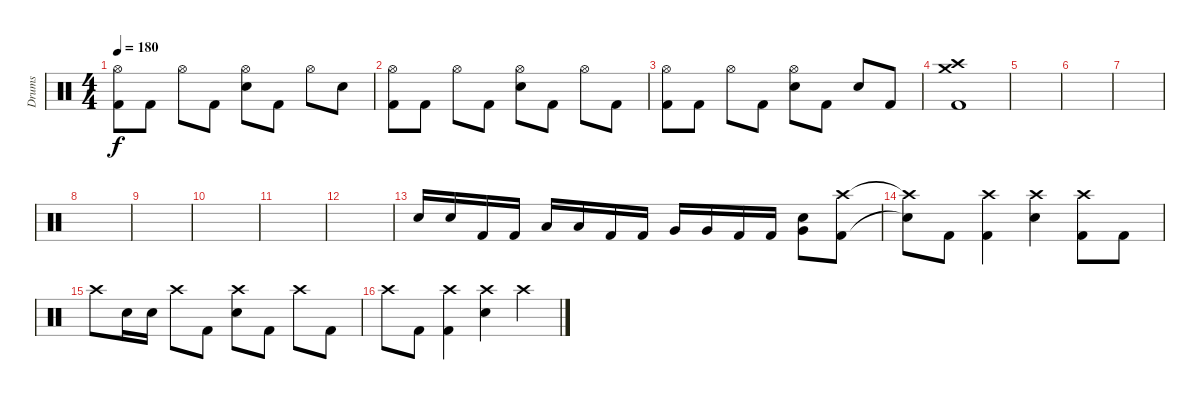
\track ("Drums" "Drums") {instrument percussion}
\staff {score}
\articulation defaults
\ts (4 4)
\tempo 180
\clef neutral
\ks c
("Hi-Hat (open)" "Kick (hit) 2").8{dy f} "Kick (hit) 2".8 "Hi-Hat (open)".8 "Kick (hit) 2".8 ("Hi-Hat (open)" "Electric Snare (hit)").8 "Kick (hit) 2".8 "Hi-Hat (open)".8 "Electric Snare (hit)".8 |
("Hi-Hat (open)" "Kick (hit) 2").8 "Kick (hit) 2".8 "Hi-Hat (open)".8 "Kick (hit) 2".8 ("Hi-Hat (open)" "Electric Snare (hit)").8 "Kick (hit) 2".8 "Hi-Hat (open)".8 "Kick (hit) 2".8 |
("Hi-Hat (open)" "Kick (hit) 2").8 "Kick (hit) 2".8 "Hi-Hat (open)".8 "Kick (hit) 2".8 ("Hi-Hat (open)" "Electric Snare (hit)").8 "Kick (hit) 2".8 "Electric Snare (hit)".8 "Kick (hit) 2".8 |
("Crash high (hit)" "Crash medium (hit)" "Kick (hit) 2").1 |
|
|
|
|
|
|
|
|
"Electric Snare (hit)".16 "Electric Snare (hit)".16 "Kick (hit) 2".16 "Kick (hit) 2".16 "Low Tom (hit)".16 "Low Tom (hit)".16 "Kick (hit) 2".16 "Kick (hit) 2".16 "Very Low Tom (hit)".16 "Very Low Tom (hit)".16 "Kick (hit) 2".16 "Kick (hit) 2".16 ("Very Low Tom (hit)" "Electric Snare (hit)").8 ("Crash high (hit)" "Kick (hit) 2").8 |
("Crash high (hit)"{t} "Snare (hit)"{t}).8 "Kick (hit) 2".8 ("Crash high (hit)" "Kick (hit) 2").4 ("Crash high (hit)" "Electric Snare (hit)").4 ("Crash high (hit)" "Kick (hit) 2").8 "Kick (hit) 2".8 |
"Crash high (hit)".8 "Electric Snare (hit)".16 "Electric Snare (hit)".16 "Crash high (hit)".8 "Kick (hit) 2".8 ("Crash high (hit)" "Electric Snare (hit)").8 "Kick (hit) 2".8 "Crash high (hit)".8 "Kick (hit) 2".8 |
"Crash high (hit)".8 "Kick (hit) 2".8 ("Crash high (hit)" "Kick (hit) 2").4 ("Crash high (hit)" "Electric Snare (hit)").4 "Crash high (hit)".4
